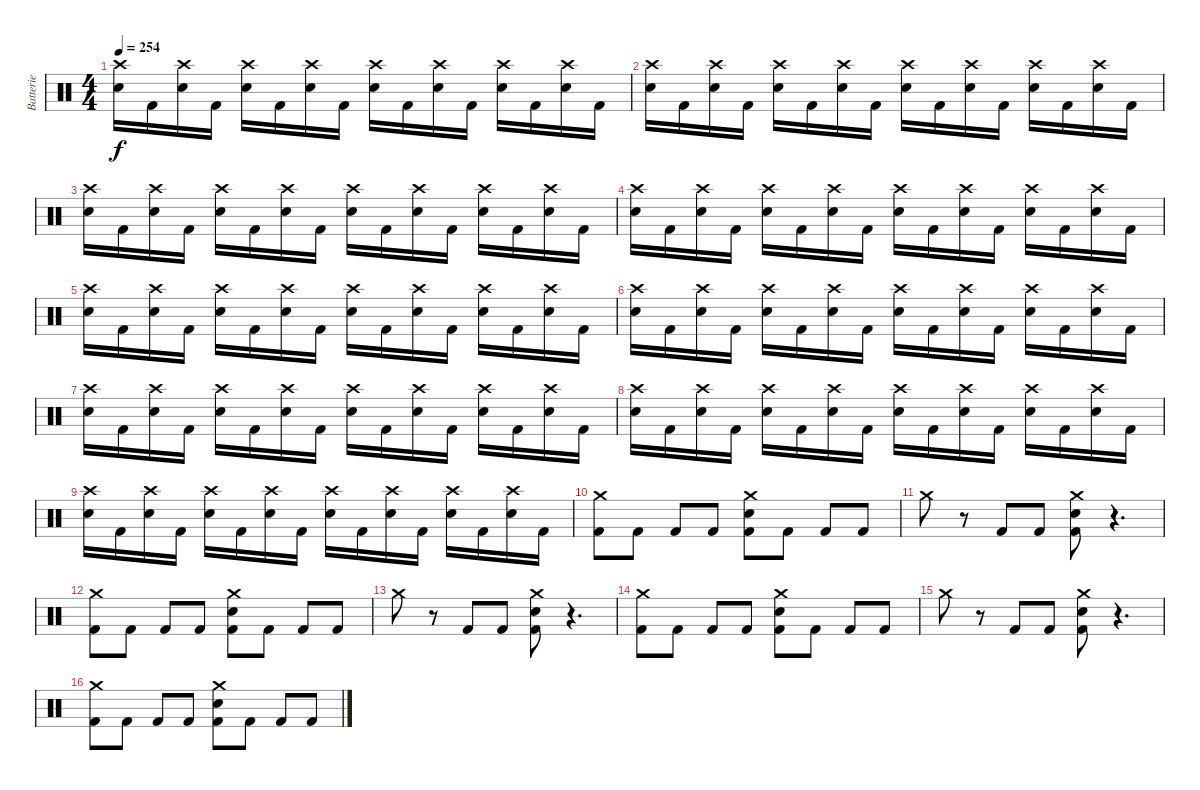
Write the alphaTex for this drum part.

\track ("Batterie" "Batterie") {instrument percussion}
\staff {score}
\articulation defaults
\ts (4 4)
\tempo 254
\clef neutral
\ks c
("Crash high (hit)" "Electric Snare (hit)").16{dy f} "Kick (hit) 2".16 ("Crash high (hit)" "Electric Snare (hit)").16 "Kick (hit) 2".16 ("Crash high (hit)" "Electric Snare (hit)").16 "Kick (hit) 2".16 ("Crash high (hit)" "Electric Snare (hit)").16 "Kick (hit) 2".16 ("Crash high (hit)" "Electric Snare (hit)").16 "Kick (hit) 2".16 ("Crash high (hit)" "Electric Snare (hit)").16 "Kick (hit) 2".16 ("Crash high (hit)" "Electric Snare (hit)").16 "Kick (hit) 2".16 ("Crash high (hit)" "Electric Snare (hit)").16 "Kick (hit) 2".16 |
\section ("" "")
("Crash high (hit)" "Electric Snare (hit)").16 "Kick (hit) 2".16 ("Crash high (hit)" "Electric Snare (hit)").16 "Kick (hit) 2".16 ("Crash high (hit)" "Electric Snare (hit)").16 "Kick (hit) 2".16 ("Crash high (hit)" "Electric Snare (hit)").16 "Kick (hit) 2".16 ("Crash high (hit)" "Electric Snare (hit)").16 "Kick (hit) 2".16 ("Crash high (hit)" "Electric Snare (hit)").16 "Kick (hit) 2".16 ("Crash high (hit)" "Electric Snare (hit)").16 "Kick (hit) 2".16 ("Crash high (hit)" "Electric Snare (hit)").16 "Kick (hit) 2".16 |
("Crash high (hit)" "Electric Snare (hit)").16 "Kick (hit) 2".16 ("Crash high (hit)" "Electric Snare (hit)").16 "Kick (hit) 2".16 ("Crash high (hit)" "Electric Snare (hit)").16 "Kick (hit) 2".16 ("Crash high (hit)" "Electric Snare (hit)").16 "Kick (hit) 2".16 ("Crash high (hit)" "Electric Snare (hit)").16 "Kick (hit) 2".16 ("Crash high (hit)" "Electric Snare (hit)").16 "Kick (hit) 2".16 ("Crash high (hit)" "Electric Snare (hit)").16 "Kick (hit) 2".16 ("Crash high (hit)" "Electric Snare (hit)").16 "Kick (hit) 2".16 |
("Crash high (hit)" "Electric Snare (hit)").16 "Kick (hit) 2".16 ("Crash high (hit)" "Electric Snare (hit)").16 "Kick (hit) 2".16 ("Crash high (hit)" "Electric Snare (hit)").16 "Kick (hit) 2".16 ("Crash high (hit)" "Electric Snare (hit)").16 "Kick (hit) 2".16 ("Crash high (hit)" "Electric Snare (hit)").16 "Kick (hit) 2".16 ("Crash high (hit)" "Electric Snare (hit)").16 "Kick (hit) 2".16 ("Crash high (hit)" "Electric Snare (hit)").16 "Kick (hit) 2".16 ("Crash high (hit)" "Electric Snare (hit)").16 "Kick (hit) 2".16 |
("Crash high (hit)" "Electric Snare (hit)").16 "Kick (hit) 2".16 ("Crash high (hit)" "Electric Snare (hit)").16 "Kick (hit) 2".16 ("Crash high (hit)" "Electric Snare (hit)").16 "Kick (hit) 2".16 ("Crash high (hit)" "Electric Snare (hit)").16 "Kick (hit) 2".16 ("Crash high (hit)" "Electric Snare (hit)").16 "Kick (hit) 2".16 ("Crash high (hit)" "Electric Snare (hit)").16 "Kick (hit) 2".16 ("Crash high (hit)" "Electric Snare (hit)").16 "Kick (hit) 2".16 ("Crash high (hit)" "Electric Snare (hit)").16 "Kick (hit) 2".16 |
("Crash high (hit)" "Electric Snare (hit)").16 "Kick (hit) 2".16 ("Crash high (hit)" "Electric Snare (hit)").16 "Kick (hit) 2".16 ("Crash high (hit)" "Electric Snare (hit)").16 "Kick (hit) 2".16 ("Crash high (hit)" "Electric Snare (hit)").16 "Kick (hit) 2".16 ("Crash high (hit)" "Electric Snare (hit)").16 "Kick (hit) 2".16 ("Crash high (hit)" "Electric Snare (hit)").16 "Kick (hit) 2".16 ("Crash high (hit)" "Electric Snare (hit)").16 "Kick (hit) 2".16 ("Crash high (hit)" "Electric Snare (hit)").16 "Kick (hit) 2".16 |
("Crash high (hit)" "Electric Snare (hit)").16 "Kick (hit) 2".16 ("Crash high (hit)" "Electric Snare (hit)").16 "Kick (hit) 2".16 ("Crash high (hit)" "Electric Snare (hit)").16 "Kick (hit) 2".16 ("Crash high (hit)" "Electric Snare (hit)").16 "Kick (hit) 2".16 ("Crash high (hit)" "Electric Snare (hit)").16 "Kick (hit) 2".16 ("Crash high (hit)" "Electric Snare (hit)").16 "Kick (hit) 2".16 ("Crash high (hit)" "Electric Snare (hit)").16 "Kick (hit) 2".16 ("Crash high (hit)" "Electric Snare (hit)").16 "Kick (hit) 2".16 |
("Crash high (hit)" "Electric Snare (hit)").16 "Kick (hit) 2".16 ("Crash high (hit)" "Electric Snare (hit)").16 "Kick (hit) 2".16 ("Crash high (hit)" "Electric Snare (hit)").16 "Kick (hit) 2".16 ("Crash high (hit)" "Electric Snare (hit)").16 "Kick (hit) 2".16 ("Crash high (hit)" "Electric Snare (hit)").16 "Kick (hit) 2".16 ("Crash high (hit)" "Electric Snare (hit)").16 "Kick (hit) 2".16 ("Crash high (hit)" "Electric Snare (hit)").16 "Kick (hit) 2".16 ("Crash high (hit)" "Electric Snare (hit)").16 "Kick (hit) 2".16 |
("Crash high (hit)" "Electric Snare (hit)").16 "Kick (hit) 2".16 ("Crash high (hit)" "Electric Snare (hit)").16 "Kick (hit) 2".16 ("Crash high (hit)" "Electric Snare (hit)").16 "Kick (hit) 2".16 ("Crash high (hit)" "Electric Snare (hit)").16 "Kick (hit) 2".16 ("Crash high (hit)" "Electric Snare (hit)").16 "Kick (hit) 2".16 ("Crash high (hit)" "Electric Snare (hit)").16 "Kick (hit) 2".16 ("Crash high (hit)" "Electric Snare (hit)").16 "Kick (hit) 2".16 ("Crash high (hit)" "Electric Snare (hit)").16 "Kick (hit) 2".16 |
\section ("" "")
("Crash medium (hit)" "Kick (hit) 2").8 "Kick (hit) 2".8 "Kick (hit) 2".8 "Kick (hit) 2".8 ("Crash medium (hit)" "Electric Snare (hit)" "Kick (hit) 2").8 "Kick (hit) 2".8 "Kick (hit) 2".8 "Kick (hit) 2".8 |
"Crash medium (hit)".8 r.8 "Kick (hit) 2".8 "Kick (hit) 2".8 ("Crash medium (hit)" "Electric Snare (hit)" "Kick (hit) 2").8 r.4{d} |
("Crash medium (hit)" "Kick (hit) 2").8 "Kick (hit) 2".8 "Kick (hit) 2".8 "Kick (hit) 2".8 ("Crash medium (hit)" "Electric Snare (hit)" "Kick (hit) 2").8 "Kick (hit) 2".8 "Kick (hit) 2".8 "Kick (hit) 2".8 |
"Crash medium (hit)".8 r.8 "Kick (hit) 2".8 "Kick (hit) 2".8 ("Crash medium (hit)" "Electric Snare (hit)" "Kick (hit) 2").8 r.4{d} |
("Crash medium (hit)" "Kick (hit) 2").8 "Kick (hit) 2".8 "Kick (hit) 2".8 "Kick (hit) 2".8 ("Crash medium (hit)" "Electric Snare (hit)" "Kick (hit) 2").8 "Kick (hit) 2".8 "Kick (hit) 2".8 "Kick (hit) 2".8 |
"Crash medium (hit)".8 r.8 "Kick (hit) 2".8 "Kick (hit) 2".8 ("Crash medium (hit)" "Electric Snare (hit)" "Kick (hit) 2").8 r.4{d} |
("Crash medium (hit)" "Kick (hit) 2").8 "Kick (hit) 2".8 "Kick (hit) 2".8 "Kick (hit) 2".8 ("Crash medium (hit)" "Electric Snare (hit)" "Kick (hit) 2").8 "Kick (hit) 2".8 "Kick (hit) 2".8 "Kick (hit) 2".8
